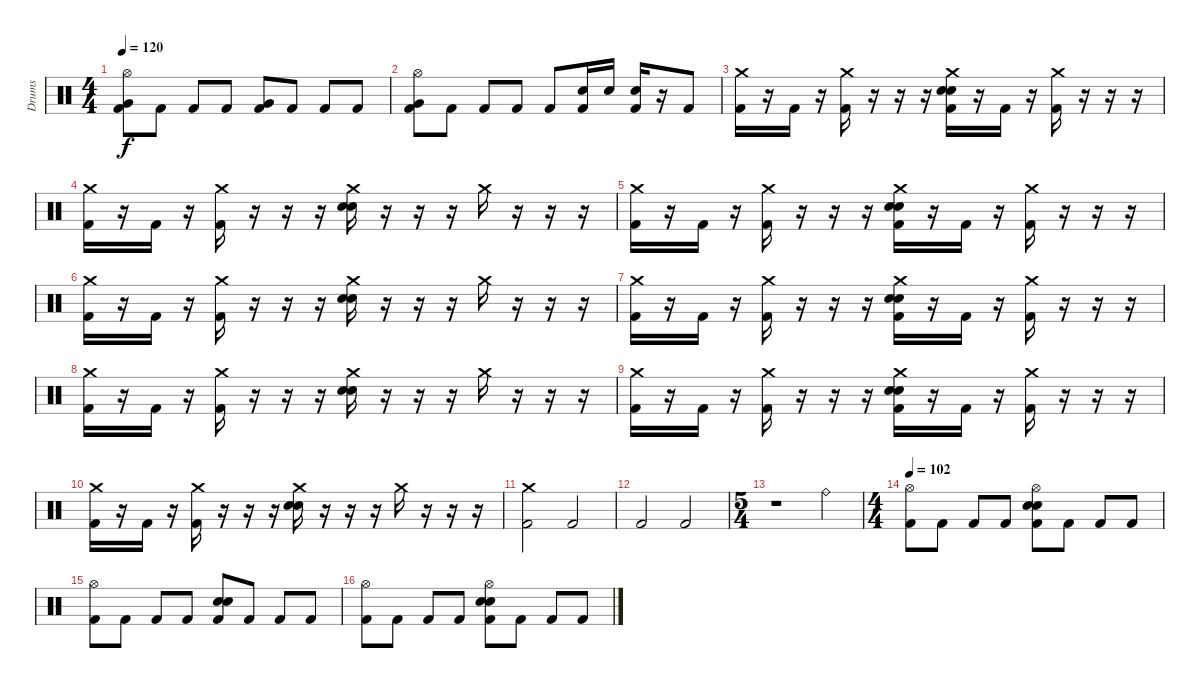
\track ("Drums" "Drums") {instrument percussion}
\staff {score}
\articulation defaults
\ts (4 4)
\tempo 120
\clef neutral
\ks c
("Hi-Hat (open)" "Very Low Tom (hit)" "Kick (hit) 2").8{dy f} "Kick (hit) 2".8 "Kick (hit) 2".8 "Kick (hit) 2".8 ("Very Low Tom (hit)" "Kick (hit) 2").8 "Kick (hit) 2".8 "Kick (hit) 2".8 "Kick (hit) 2".8 |
("Hi-Hat (open)" "Very Low Tom (hit)" "Kick (hit) 2").8 "Kick (hit) 2".8 "Kick (hit) 2".8 "Kick (hit) 2".8 "Kick (hit) 2".8 ("Electric Snare (hit)" "Kick (hit) 2").16 "Electric Snare (hit)".16 ("Electric Snare (hit)" "Kick (hit) 2").16 r.16 "Kick (hit) 2".8 |
("Crash medium (hit)" "Kick (hit) 2").16 r.16 "Kick (hit) 2".16 r.16 ("Crash medium (hit)" "Kick (hit) 2").16 r.16 r.16 r.16 ("Crash medium (hit)" "Electric Snare (hit)" "Electric Snare (hit)" "Kick (hit) 2").16 r.16 "Kick (hit) 2".16 r.16 ("Crash medium (hit)" "Kick (hit) 2").16 r.16 r.16 r.16 |
("Crash medium (hit)" "Kick (hit) 2").16 r.16 "Kick (hit) 2".16 r.16 ("Crash medium (hit)" "Kick (hit) 2").16 r.16 r.16 r.16 ("Crash medium (hit)" "Electric Snare (hit)" "Electric Snare (hit)").16 r.16 r.16 r.16 "Crash medium (hit)".16 r.16 r.16 r.16 |
("Crash medium (hit)" "Kick (hit) 2").16 r.16 "Kick (hit) 2".16 r.16 ("Crash medium (hit)" "Kick (hit) 2").16 r.16 r.16 r.16 ("Crash medium (hit)" "Electric Snare (hit)" "Electric Snare (hit)" "Kick (hit) 2").16 r.16 "Kick (hit) 2".16 r.16 ("Crash medium (hit)" "Kick (hit) 2").16 r.16 r.16 r.16 |
("Crash medium (hit)" "Kick (hit) 2").16 r.16 "Kick (hit) 2".16 r.16 ("Crash medium (hit)" "Kick (hit) 2").16 r.16 r.16 r.16 ("Crash medium (hit)" "Electric Snare (hit)" "Electric Snare (hit)").16 r.16 r.16 r.16 "Crash medium (hit)".16 r.16 r.16 r.16 |
("Crash medium (hit)" "Kick (hit) 2").16 r.16 "Kick (hit) 2".16 r.16 ("Crash medium (hit)" "Kick (hit) 2").16 r.16 r.16 r.16 ("Crash medium (hit)" "Electric Snare (hit)" "Electric Snare (hit)" "Kick (hit) 2").16 r.16 "Kick (hit) 2".16 r.16 ("Crash medium (hit)" "Kick (hit) 2").16 r.16 r.16 r.16 |
("Crash medium (hit)" "Kick (hit) 2").16 r.16 "Kick (hit) 2".16 r.16 ("Crash medium (hit)" "Kick (hit) 2").16 r.16 r.16 r.16 ("Crash medium (hit)" "Electric Snare (hit)" "Electric Snare (hit)").16 r.16 r.16 r.16 "Crash medium (hit)".16 r.16 r.16 r.16 |
("Crash medium (hit)" "Kick (hit) 2").16 r.16 "Kick (hit) 2".16 r.16 ("Crash medium (hit)" "Kick (hit) 2").16 r.16 r.16 r.16 ("Crash medium (hit)" "Electric Snare (hit)" "Electric Snare (hit)" "Kick (hit) 2").16 r.16 "Kick (hit) 2".16 r.16 ("Crash medium (hit)" "Kick (hit) 2").16 r.16 r.16 r.16 |
("Crash medium (hit)" "Kick (hit) 2").16 r.16 "Kick (hit) 2".16 r.16 ("Crash medium (hit)" "Kick (hit) 2").16 r.16 r.16 r.16 ("Crash medium (hit)" "Electric Snare (hit)" "Electric Snare (hit)").16 r.16 r.16 r.16 "Crash medium (hit)".16 r.16 r.16 r.16 |
("Crash medium (hit)" "Kick (hit) 2").2 "Kick (hit) 2".2 |
"Kick (hit) 2".2 "Kick (hit) 2".2 |
\ts (5 4)
r.1 "Ride (bell)".4 |
\ts (4 4)
\tempo 102
("Hi-Hat (open)" "Kick (hit) 2").8 "Kick (hit) 2".8 "Kick (hit) 2".8 "Kick (hit) 2".8 ("Hi-Hat (open)" "Electric Snare (hit)" "Electric Snare (hit)" "Kick (hit) 2").8 "Kick (hit) 2".8 "Kick (hit) 2".8 "Kick (hit) 2".8 |
("Hi-Hat (open)" "Kick (hit) 2").8 "Kick (hit) 2".8 "Kick (hit) 2".8 "Kick (hit) 2".8 ("Electric Snare (hit)" "Electric Snare (hit)" "Kick (hit) 2").8 "Kick (hit) 2".8 "Kick (hit) 2".8 "Kick (hit) 2".8 |
("Hi-Hat (open)" "Kick (hit) 2").8 "Kick (hit) 2".8 "Kick (hit) 2".8 "Kick (hit) 2".8 ("Hi-Hat (open)" "Electric Snare (hit)" "Electric Snare (hit)" "Kick (hit) 2").8 "Kick (hit) 2".8 "Kick (hit) 2".8 "Kick (hit) 2".8
